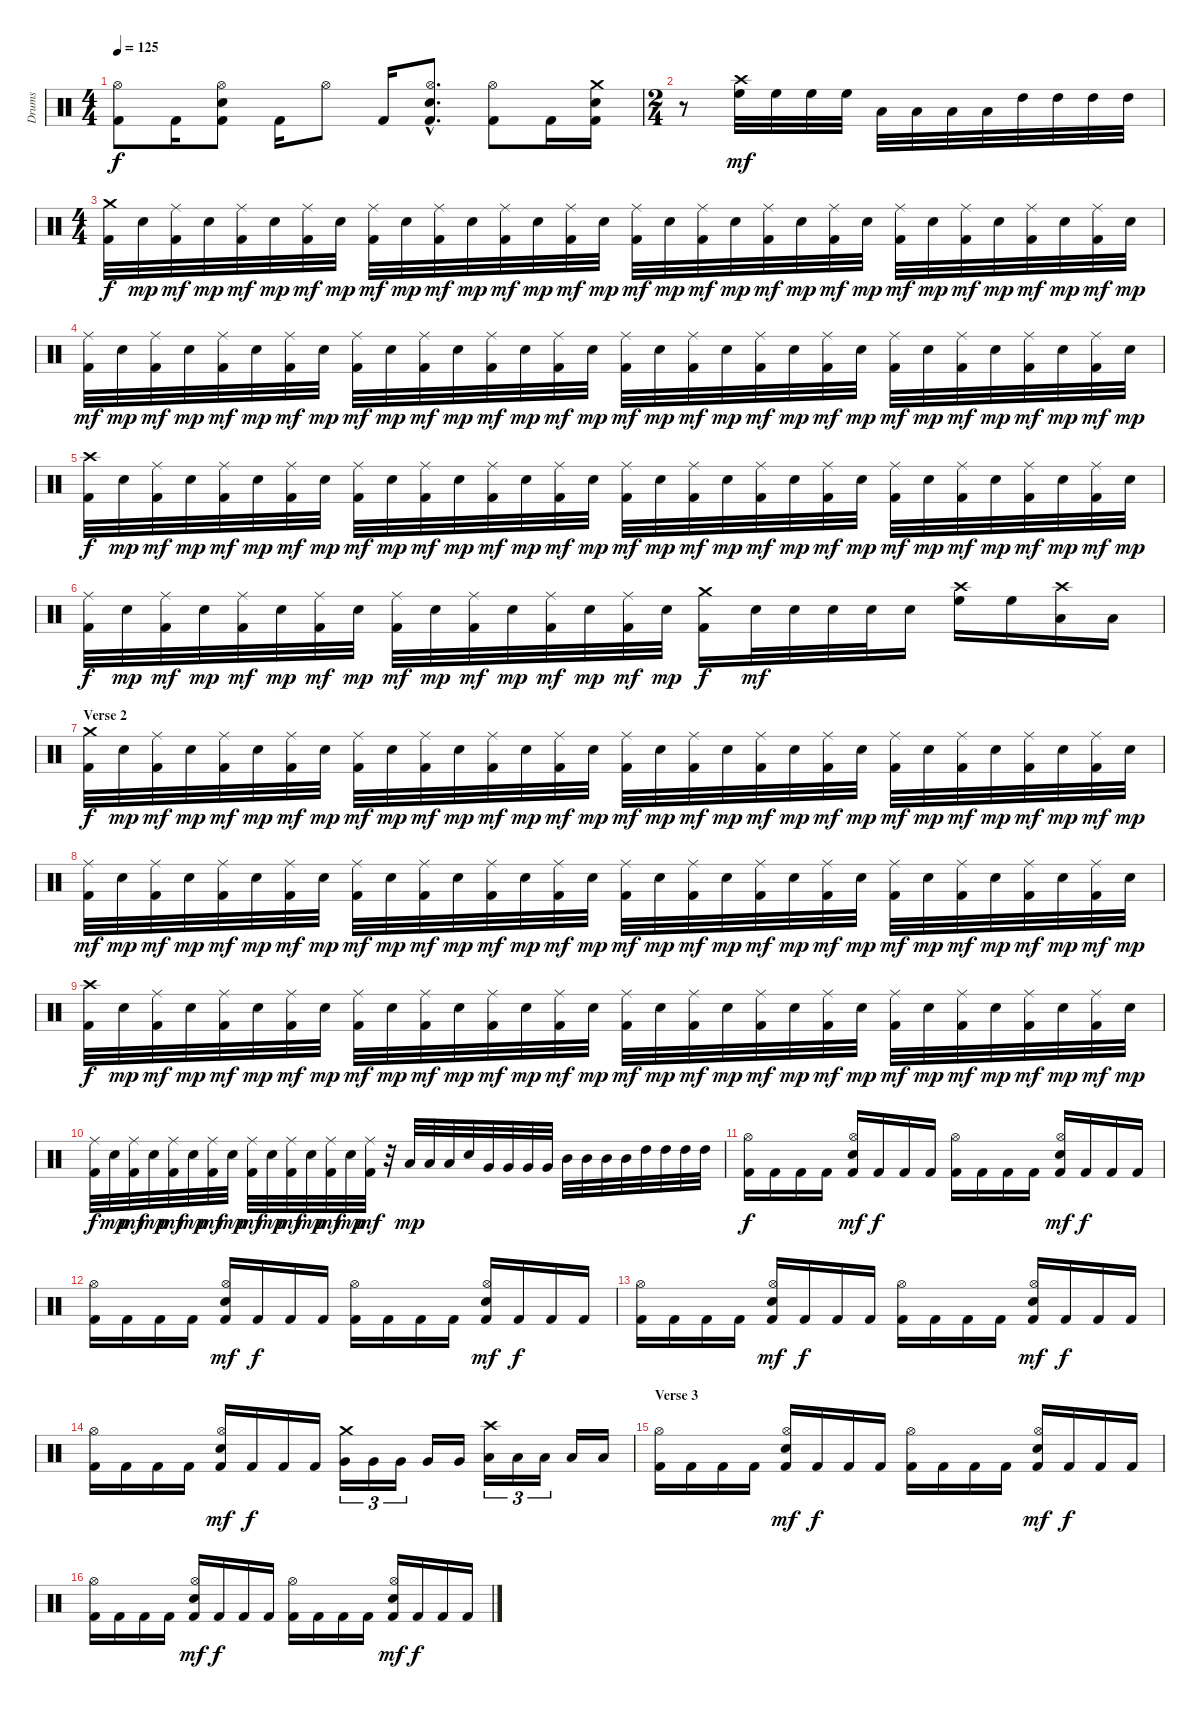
\track ("Drums" "Drums") {instrument percussion}
\staff {score}
\articulation defaults
\ts (4 4)
\tempo 125
\clef neutral
\ks c
("Kick (hit) 2" "Hi-Hat (open)").8{dy f} "Kick (hit) 2".16 ("Kick (hit) 2" "Electric Snare (hit)" "Hi-Hat (open)").8 "Kick (hit) 2".16 "Hi-Hat (open)".8 "Kick (hit) 2".16 ("Kick (hit) 2"{hac} "Electric Snare (hit)"{hac} "Hi-Hat (open)"{hac}).8{d} ("Kick (hit) 2" "Hi-Hat (open)").8 "Kick (hit) 2".16 ("Kick (hit) 2" "Electric Snare (hit)" "Crash medium (hit)").16 |
\ts (2 4)
r.8 ("High Floor Tom (hit)" "Crash high (hit)").32{dy mf} "High Floor Tom (hit)".32 "High Floor Tom (hit)".32 "High Floor Tom (hit)".32 "Low Tom (hit)".32 "Low Tom (hit)".32 "Low Tom (hit)".32 "Low Tom (hit)".32 "High Tom (hit)".32 "High Tom (hit)".32 "High Tom (hit)".32 "High Tom (hit)".32 |
\ts (4 4)
("Kick (hit) 2" "Crash medium (hit)").32{dy f} "Electric Snare (hit)".32{dy mp} ("Kick (hit) 2" "Ride (middle)").32{dy mf} "Electric Snare (hit)".32{dy mp} ("Kick (hit) 2" "Ride (middle)").32{dy mf} "Electric Snare (hit)".32{dy mp} ("Kick (hit) 2" "Ride (middle)").32{dy mf} "Electric Snare (hit)".32{dy mp} ("Kick (hit) 2" "Ride (middle)").32{dy mf} "Electric Snare (hit)".32{dy mp} ("Kick (hit) 2" "Ride (middle)").32{dy mf} "Electric Snare (hit)".32{dy mp} ("Kick (hit) 2" "Ride (middle)").32{dy mf} "Electric Snare (hit)".32{dy mp} ("Kick (hit) 2" "Ride (middle)").32{dy mf} "Electric Snare (hit)".32{dy mp} ("Kick (hit) 2" "Ride (middle)").32{dy mf} "Electric Snare (hit)".32{dy mp} ("Kick (hit) 2" "Ride (middle)").32{dy mf} "Electric Snare (hit)".32{dy mp} ("Kick (hit) 2" "Ride (middle)").32{dy mf} "Electric Snare (hit)".32{dy mp} ("Kick (hit) 2" "Ride (middle)").32{dy mf} "Electric Snare (hit)".32{dy mp} ("Kick (hit) 2" "Ride (middle)").32{dy mf} "Electric Snare (hit)".32{dy mp} ("Kick (hit) 2" "Ride (middle)").32{dy mf} "Electric Snare (hit)".32{dy mp} ("Kick (hit) 2" "Ride (middle)").32{dy mf} "Electric Snare (hit)".32{dy mp} ("Kick (hit) 2" "Ride (middle)").32{dy mf} "Electric Snare (hit)".32{dy mp} |
("Kick (hit) 2" "Ride (middle)").32{dy mf} "Electric Snare (hit)".32{dy mp} ("Kick (hit) 2" "Ride (middle)").32{dy mf} "Electric Snare (hit)".32{dy mp} ("Kick (hit) 2" "Ride (middle)").32{dy mf} "Electric Snare (hit)".32{dy mp} ("Kick (hit) 2" "Ride (middle)").32{dy mf} "Electric Snare (hit)".32{dy mp} ("Kick (hit) 2" "Ride (middle)").32{dy mf} "Electric Snare (hit)".32{dy mp} ("Kick (hit) 2" "Ride (middle)").32{dy mf} "Electric Snare (hit)".32{dy mp} ("Kick (hit) 2" "Ride (middle)").32{dy mf} "Electric Snare (hit)".32{dy mp} ("Kick (hit) 2" "Ride (middle)").32{dy mf} "Electric Snare (hit)".32{dy mp} ("Kick (hit) 2" "Ride (middle)").32{dy mf} "Electric Snare (hit)".32{dy mp} ("Kick (hit) 2" "Ride (middle)").32{dy mf} "Electric Snare (hit)".32{dy mp} ("Kick (hit) 2" "Ride (middle)").32{dy mf} "Electric Snare (hit)".32{dy mp} ("Kick (hit) 2" "Ride (middle)").32{dy mf} "Electric Snare (hit)".32{dy mp} ("Kick (hit) 2" "Ride (middle)").32{dy mf} "Electric Snare (hit)".32{dy mp} ("Kick (hit) 2" "Ride (middle)").32{dy mf} "Electric Snare (hit)".32{dy mp} ("Kick (hit) 2" "Ride (middle)").32{dy mf} "Electric Snare (hit)".32{dy mp} ("Kick (hit) 2" "Ride (middle)").32{dy mf} "Electric Snare (hit)".32{dy mp} |
("Kick (hit) 2" "Crash high (hit)").32{dy f} "Electric Snare (hit)".32{dy mp} ("Kick (hit) 2" "Ride (middle)").32{dy mf} "Electric Snare (hit)".32{dy mp} ("Kick (hit) 2" "Ride (middle)").32{dy mf} "Electric Snare (hit)".32{dy mp} ("Kick (hit) 2" "Ride (middle)").32{dy mf} "Electric Snare (hit)".32{dy mp} ("Kick (hit) 2" "Ride (middle)").32{dy mf} "Electric Snare (hit)".32{dy mp} ("Kick (hit) 2" "Ride (middle)").32{dy mf} "Electric Snare (hit)".32{dy mp} ("Kick (hit) 2" "Ride (middle)").32{dy mf} "Electric Snare (hit)".32{dy mp} ("Kick (hit) 2" "Ride (middle)").32{dy mf} "Electric Snare (hit)".32{dy mp} ("Kick (hit) 2" "Ride (middle)").32{dy mf} "Electric Snare (hit)".32{dy mp} ("Kick (hit) 2" "Ride (middle)").32{dy mf} "Electric Snare (hit)".32{dy mp} ("Kick (hit) 2" "Ride (middle)").32{dy mf} "Electric Snare (hit)".32{dy mp} ("Kick (hit) 2" "Ride (middle)").32{dy mf} "Electric Snare (hit)".32{dy mp} ("Kick (hit) 2" "Ride (middle)").32{dy mf} "Electric Snare (hit)".32{dy mp} ("Kick (hit) 2" "Ride (middle)").32{dy mf} "Electric Snare (hit)".32{dy mp} ("Kick (hit) 2" "Ride (middle)").32{dy mf} "Electric Snare (hit)".32{dy mp} ("Kick (hit) 2" "Ride (middle)").32{dy mf} "Electric Snare (hit)".32{dy mp} |
("Kick (hit) 2" "Ride (middle)").32{dy f} "Electric Snare (hit)".32{dy mp} ("Kick (hit) 2" "Ride (middle)").32{dy mf} "Electric Snare (hit)".32{dy mp} ("Kick (hit) 2" "Ride (middle)").32{dy mf} "Electric Snare (hit)".32{dy mp} ("Kick (hit) 2" "Ride (middle)").32{dy mf} "Electric Snare (hit)".32{dy mp} ("Kick (hit) 2" "Ride (middle)").32{dy mf} "Electric Snare (hit)".32{dy mp} ("Kick (hit) 2" "Ride (middle)").32{dy mf} "Electric Snare (hit)".32{dy mp} ("Kick (hit) 2" "Ride (middle)").32{dy mf} "Electric Snare (hit)".32{dy mp} ("Kick (hit) 2" "Ride (middle)").32{dy mf} "Electric Snare (hit)".32{dy mp} ("Kick (hit) 2" "Crash medium (hit)").16{dy f} "Electric Snare (hit)".32{dy mf} "Electric Snare (hit)".32 "Electric Snare (hit)".32 "Electric Snare (hit)".32 "Electric Snare (hit)".16 ("High Floor Tom (hit)" "Crash high (hit)").16 "High Floor Tom (hit)".16 ("Low Tom (hit)" "Crash high (hit)").16 "Low Tom (hit)".16 |
\section ("" "Verse 2")
("Kick (hit) 2" "Crash medium (hit)").32{dy f} "Electric Snare (hit)".32{dy mp} ("Kick (hit) 2" "Ride (middle)").32{dy mf} "Electric Snare (hit)".32{dy mp} ("Kick (hit) 2" "Ride (middle)").32{dy mf} "Electric Snare (hit)".32{dy mp} ("Kick (hit) 2" "Ride (middle)").32{dy mf} "Electric Snare (hit)".32{dy mp} ("Kick (hit) 2" "Ride (middle)").32{dy mf} "Electric Snare (hit)".32{dy mp} ("Kick (hit) 2" "Ride (middle)").32{dy mf} "Electric Snare (hit)".32{dy mp} ("Kick (hit) 2" "Ride (middle)").32{dy mf} "Electric Snare (hit)".32{dy mp} ("Kick (hit) 2" "Ride (middle)").32{dy mf} "Electric Snare (hit)".32{dy mp} ("Kick (hit) 2" "Ride (middle)").32{dy mf} "Electric Snare (hit)".32{dy mp} ("Kick (hit) 2" "Ride (middle)").32{dy mf} "Electric Snare (hit)".32{dy mp} ("Kick (hit) 2" "Ride (middle)").32{dy mf} "Electric Snare (hit)".32{dy mp} ("Kick (hit) 2" "Ride (middle)").32{dy mf} "Electric Snare (hit)".32{dy mp} ("Kick (hit) 2" "Ride (middle)").32{dy mf} "Electric Snare (hit)".32{dy mp} ("Kick (hit) 2" "Ride (middle)").32{dy mf} "Electric Snare (hit)".32{dy mp} ("Kick (hit) 2" "Ride (middle)").32{dy mf} "Electric Snare (hit)".32{dy mp} ("Kick (hit) 2" "Ride (middle)").32{dy mf} "Electric Snare (hit)".32{dy mp} |
("Kick (hit) 2" "Ride (middle)").32{dy mf} "Electric Snare (hit)".32{dy mp} ("Kick (hit) 2" "Ride (middle)").32{dy mf} "Electric Snare (hit)".32{dy mp} ("Kick (hit) 2" "Ride (middle)").32{dy mf} "Electric Snare (hit)".32{dy mp} ("Kick (hit) 2" "Ride (middle)").32{dy mf} "Electric Snare (hit)".32{dy mp} ("Kick (hit) 2" "Ride (middle)").32{dy mf} "Electric Snare (hit)".32{dy mp} ("Kick (hit) 2" "Ride (middle)").32{dy mf} "Electric Snare (hit)".32{dy mp} ("Kick (hit) 2" "Ride (middle)").32{dy mf} "Electric Snare (hit)".32{dy mp} ("Kick (hit) 2" "Ride (middle)").32{dy mf} "Electric Snare (hit)".32{dy mp} ("Kick (hit) 2" "Ride (middle)").32{dy mf} "Electric Snare (hit)".32{dy mp} ("Kick (hit) 2" "Ride (middle)").32{dy mf} "Electric Snare (hit)".32{dy mp} ("Kick (hit) 2" "Ride (middle)").32{dy mf} "Electric Snare (hit)".32{dy mp} ("Kick (hit) 2" "Ride (middle)").32{dy mf} "Electric Snare (hit)".32{dy mp} ("Kick (hit) 2" "Ride (middle)").32{dy mf} "Electric Snare (hit)".32{dy mp} ("Kick (hit) 2" "Ride (middle)").32{dy mf} "Electric Snare (hit)".32{dy mp} ("Kick (hit) 2" "Ride (middle)").32{dy mf} "Electric Snare (hit)".32{dy mp} ("Kick (hit) 2" "Ride (middle)").32{dy mf} "Electric Snare (hit)".32{dy mp} |
("Kick (hit) 2" "Crash high (hit)").32{dy f} "Electric Snare (hit)".32{dy mp} ("Kick (hit) 2" "Ride (middle)").32{dy mf} "Electric Snare (hit)".32{dy mp} ("Kick (hit) 2" "Ride (middle)").32{dy mf} "Electric Snare (hit)".32{dy mp} ("Kick (hit) 2" "Ride (middle)").32{dy mf} "Electric Snare (hit)".32{dy mp} ("Kick (hit) 2" "Ride (middle)").32{dy mf} "Electric Snare (hit)".32{dy mp} ("Kick (hit) 2" "Ride (middle)").32{dy mf} "Electric Snare (hit)".32{dy mp} ("Kick (hit) 2" "Ride (middle)").32{dy mf} "Electric Snare (hit)".32{dy mp} ("Kick (hit) 2" "Ride (middle)").32{dy mf} "Electric Snare (hit)".32{dy mp} ("Kick (hit) 2" "Ride (middle)").32{dy mf} "Electric Snare (hit)".32{dy mp} ("Kick (hit) 2" "Ride (middle)").32{dy mf} "Electric Snare (hit)".32{dy mp} ("Kick (hit) 2" "Ride (middle)").32{dy mf} "Electric Snare (hit)".32{dy mp} ("Kick (hit) 2" "Ride (middle)").32{dy mf} "Electric Snare (hit)".32{dy mp} ("Kick (hit) 2" "Ride (middle)").32{dy mf} "Electric Snare (hit)".32{dy mp} ("Kick (hit) 2" "Ride (middle)").32{dy mf} "Electric Snare (hit)".32{dy mp} ("Kick (hit) 2" "Ride (middle)").32{dy mf} "Electric Snare (hit)".32{dy mp} ("Kick (hit) 2" "Ride (middle)").32{dy mf} "Electric Snare (hit)".32{dy mp} |
("Kick (hit) 2" "Ride (middle)").32{dy f} "Electric Snare (hit)".32{dy mp} ("Kick (hit) 2" "Ride (middle)").32{dy mf} "Electric Snare (hit)".32{dy mp} ("Kick (hit) 2" "Ride (middle)").32{dy mf} "Electric Snare (hit)".32{dy mp} ("Kick (hit) 2" "Ride (middle)").32{dy mf} "Electric Snare (hit)".32{dy mp} ("Kick (hit) 2" "Ride (middle)").32{dy mf} "Electric Snare (hit)".32{dy mp} ("Kick (hit) 2" "Ride (middle)").32{dy mf} "Electric Snare (hit)".32{dy mp} ("Kick (hit) 2" "Ride (middle)").32{dy mf} "Electric Snare (hit)".32{dy mp} ("Kick (hit) 2" "Ride (middle)").32{dy mf} r.32 "Low Floor Tom (hit)".32{dy mp} "Low Floor Tom (hit)".32 "Low Floor Tom (hit)".32 "Snare (hit)".32 "Very Low Tom (hit)".32 "Very Low Tom (hit)".32 "Very Low Tom (hit)".32 "Very Low Tom (hit)".32 "Mid Tom (hit)".32 "Mid Tom (hit)".32 "Mid Tom (hit)".32 "Mid Tom (hit)".32 "High Tom (hit)".32 "High Tom (hit)".32 "High Tom (hit)".32 "High Tom (hit)".32 |
("Kick (hit) 2" "Hi-Hat (open)").16{dy f} "Kick (hit) 2".16 "Kick (hit) 2".16 "Kick (hit) 2".16 ("Kick (hit) 2" "Electric Snare (hit)" "Hi-Hat (open)").16{dy mf} "Kick (hit) 2".16{dy f} "Kick (hit) 2".16 "Kick (hit) 2".16 ("Kick (hit) 2" "Hi-Hat (open)").16 "Kick (hit) 2".16 "Kick (hit) 2".16 "Kick (hit) 2".16 ("Kick (hit) 2" "Electric Snare (hit)" "Hi-Hat (open)").16{dy mf} "Kick (hit) 2".16{dy f} "Kick (hit) 2".16 "Kick (hit) 2".16 |
("Kick (hit) 2" "Hi-Hat (open)").16 "Kick (hit) 2".16 "Kick (hit) 2".16 "Kick (hit) 2".16 ("Kick (hit) 2" "Electric Snare (hit)" "Hi-Hat (open)").16{dy mf} "Kick (hit) 2".16{dy f} "Kick (hit) 2".16 "Kick (hit) 2".16 ("Kick (hit) 2" "Hi-Hat (open)").16 "Kick (hit) 2".16 "Kick (hit) 2".16 "Kick (hit) 2".16 ("Kick (hit) 2" "Electric Snare (hit)" "Hi-Hat (open)").16{dy mf} "Kick (hit) 2".16{dy f} "Kick (hit) 2".16 "Kick (hit) 2".16 |
("Kick (hit) 2" "Hi-Hat (open)").16 "Kick (hit) 2".16 "Kick (hit) 2".16 "Kick (hit) 2".16 ("Kick (hit) 2" "Electric Snare (hit)" "Hi-Hat (open)").16{dy mf} "Kick (hit) 2".16{dy f} "Kick (hit) 2".16 "Kick (hit) 2".16 ("Kick (hit) 2" "Hi-Hat (open)").16 "Kick (hit) 2".16 "Kick (hit) 2".16 "Kick (hit) 2".16 ("Kick (hit) 2" "Electric Snare (hit)" "Hi-Hat (open)").16{dy mf} "Kick (hit) 2".16{dy f} "Kick (hit) 2".16 "Kick (hit) 2".16 |
("Kick (hit) 2" "Hi-Hat (open)").16 "Kick (hit) 2".16 "Kick (hit) 2".16 "Kick (hit) 2".16 ("Kick (hit) 2" "Electric Snare (hit)" "Hi-Hat (open)").16{dy mf} "Kick (hit) 2".16{dy f} "Kick (hit) 2".16 "Kick (hit) 2".16 ("Very Low Tom (hit)" "Crash medium (hit)").16{tu (3 2)} "Very Low Tom (hit)".16{tu (3 2)} "Very Low Tom (hit)".16{tu (3 2)} "Very Low Tom (hit)".16 "Very Low Tom (hit)".16 ("Low Tom (hit)" "Crash high (hit)").16{tu (3 2)} "Low Tom (hit)".16{tu (3 2)} "Low Tom (hit)".16{tu (3 2)} "Low Tom (hit)".16 "Low Tom (hit)".16 |
\section ("" "Verse 3")
("Kick (hit) 2" "Hi-Hat (open)").16 "Kick (hit) 2".16 "Kick (hit) 2".16 "Kick (hit) 2".16 ("Kick (hit) 2" "Electric Snare (hit)" "Hi-Hat (open)").16{dy mf} "Kick (hit) 2".16{dy f} "Kick (hit) 2".16 "Kick (hit) 2".16 ("Kick (hit) 2" "Hi-Hat (open)").16 "Kick (hit) 2".16 "Kick (hit) 2".16 "Kick (hit) 2".16 ("Kick (hit) 2" "Electric Snare (hit)" "Hi-Hat (open)").16{dy mf} "Kick (hit) 2".16{dy f} "Kick (hit) 2".16 "Kick (hit) 2".16 |
("Kick (hit) 2" "Hi-Hat (open)").16 "Kick (hit) 2".16 "Kick (hit) 2".16 "Kick (hit) 2".16 ("Kick (hit) 2" "Electric Snare (hit)" "Hi-Hat (open)").16{dy mf} "Kick (hit) 2".16{dy f} "Kick (hit) 2".16 "Kick (hit) 2".16 ("Kick (hit) 2" "Hi-Hat (open)").16 "Kick (hit) 2".16 "Kick (hit) 2".16 "Kick (hit) 2".16 ("Kick (hit) 2" "Electric Snare (hit)" "Hi-Hat (open)").16{dy mf} "Kick (hit) 2".16{dy f} "Kick (hit) 2".16 "Kick (hit) 2".16
